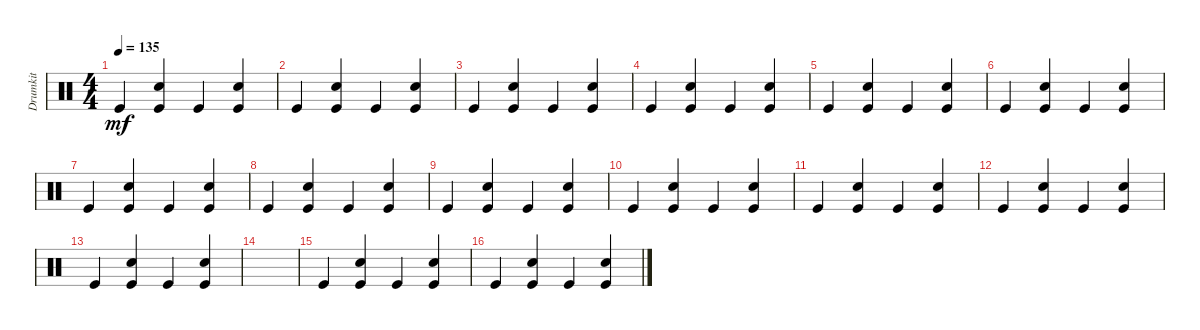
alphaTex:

\track ("Drumkit" "Drumkit") {solo instrument percussion}
\staff {score}
\articulation defaults
\ts (4 4)
\tempo 135
\clef neutral
\ks c "Kick (hit)".4{dy mf}
("Kick (hit)" "Snare (hit) 2").4 "Kick (hit)".4 ("Kick (hit)" "Snare (hit) 2").4 |
"Kick (hit)".4 ("Kick (hit)" "Snare (hit) 2").4 "Kick (hit)".4 ("Kick (hit)" "Snare (hit) 2").4 |
"Kick (hit)".4 ("Kick (hit)" "Snare (hit) 2").4 "Kick (hit)".4 ("Kick (hit)" "Snare (hit) 2").4 |
"Kick (hit)".4 ("Kick (hit)" "Snare (hit) 2").4 "Kick (hit)".4 ("Kick (hit)" "Snare (hit) 2").4 |
"Kick (hit)".4 ("Kick (hit)" "Snare (hit) 2").4 "Kick (hit)".4 ("Kick (hit)" "Snare (hit) 2").4 |
"Kick (hit)".4 ("Kick (hit)" "Snare (hit) 2").4 "Kick (hit)".4 ("Kick (hit)" "Snare (hit) 2").4 |
"Kick (hit)".4 ("Kick (hit)" "Snare (hit) 2").4 "Kick (hit)".4 ("Kick (hit)" "Snare (hit) 2").4 |
"Kick (hit)".4 ("Kick (hit)" "Snare (hit) 2").4 "Kick (hit)".4 ("Kick (hit)" "Snare (hit) 2").4 |
"Kick (hit)".4 ("Kick (hit)" "Snare (hit) 2").4 "Kick (hit)".4 ("Kick (hit)" "Snare (hit) 2").4 |
"Kick (hit)".4 ("Kick (hit)" "Snare (hit) 2").4 "Kick (hit)".4 ("Kick (hit)" "Snare (hit) 2").4 |
"Kick (hit)".4 ("Kick (hit)" "Snare (hit) 2").4 "Kick (hit)".4 ("Kick (hit)" "Snare (hit) 2").4 |
"Kick (hit)".4 ("Kick (hit)" "Snare (hit) 2").4 "Kick (hit)".4 ("Kick (hit)" "Snare (hit) 2").4 |
"Kick (hit)".4 ("Kick (hit)" "Snare (hit) 2").4 "Kick (hit)".4 ("Kick (hit)" "Snare (hit) 2").4 |
|
"Kick (hit)".4 ("Kick (hit)" "Snare (hit) 2").4 "Kick (hit)".4 ("Kick (hit)" "Snare (hit) 2").4 |
"Kick (hit)".4 ("Kick (hit)" "Snare (hit) 2").4 "Kick (hit)".4 ("Kick (hit)" "Snare (hit) 2").4
